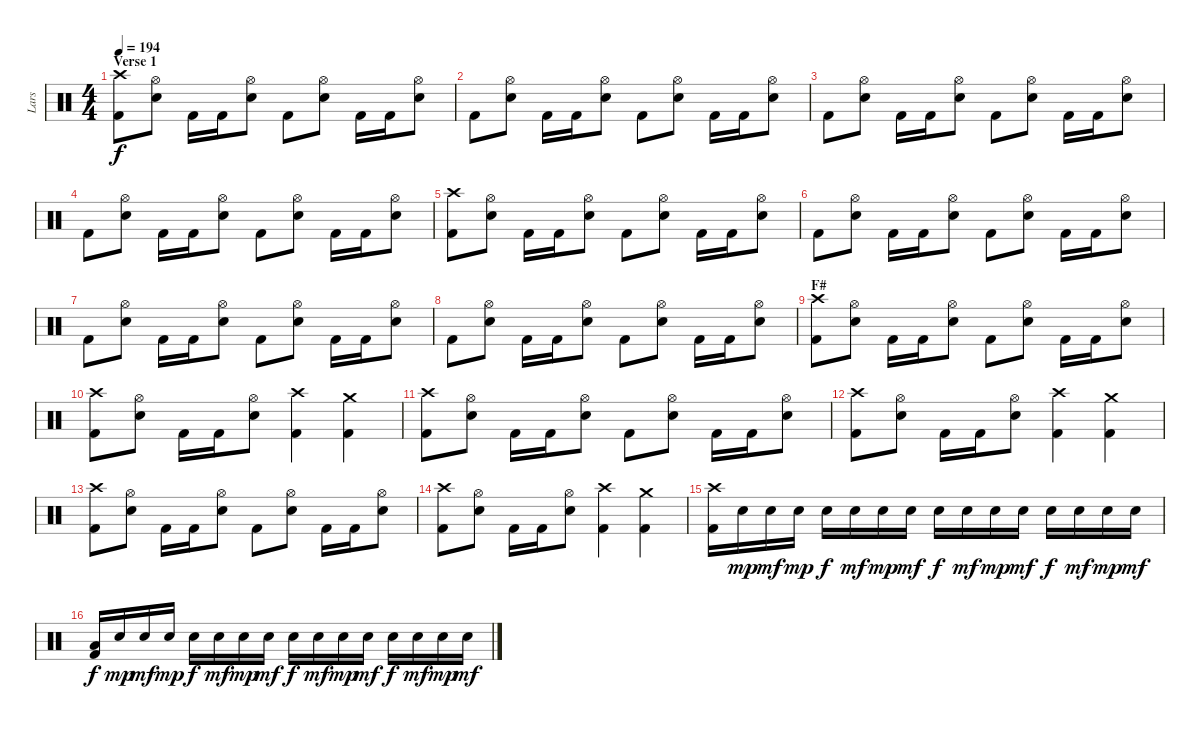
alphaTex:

\track ("Lars" "Lars") {instrument percussion}
\staff {score}
\articulation defaults
\ts (4 4)
\section ("" "Verse 1")
\tempo 194
\clef neutral
\ks c
("Kick (hit) 2" "Crash high (hit)").8{dy f} ("Electric Snare (hit)" "Hi-Hat (open)").8 "Kick (hit) 2".16 "Kick (hit) 2".16 ("Electric Snare (hit)" "Hi-Hat (open)").8 "Kick (hit) 2".8 ("Electric Snare (hit)" "Hi-Hat (open)").8 "Kick (hit) 2".16 "Kick (hit) 2".16 ("Electric Snare (hit)" "Hi-Hat (open)").8 |
"Kick (hit) 2".8 ("Electric Snare (hit)" "Hi-Hat (open)").8 "Kick (hit) 2".16 "Kick (hit) 2".16 ("Electric Snare (hit)" "Hi-Hat (open)").8 "Kick (hit) 2".8 ("Electric Snare (hit)" "Hi-Hat (open)").8 "Kick (hit) 2".16 "Kick (hit) 2".16 ("Electric Snare (hit)" "Hi-Hat (open)").8 |
"Kick (hit) 2".8 ("Electric Snare (hit)" "Hi-Hat (open)").8 "Kick (hit) 2".16 "Kick (hit) 2".16 ("Electric Snare (hit)" "Hi-Hat (open)").8 "Kick (hit) 2".8 ("Electric Snare (hit)" "Hi-Hat (open)").8 "Kick (hit) 2".16 "Kick (hit) 2".16 ("Electric Snare (hit)" "Hi-Hat (open)").8 |
"Kick (hit) 2".8 ("Electric Snare (hit)" "Hi-Hat (open)").8 "Kick (hit) 2".16 "Kick (hit) 2".16 ("Electric Snare (hit)" "Hi-Hat (open)").8 "Kick (hit) 2".8 ("Electric Snare (hit)" "Hi-Hat (open)").8 "Kick (hit) 2".16 "Kick (hit) 2".16 ("Electric Snare (hit)" "Hi-Hat (open)").8 |
("Kick (hit) 2" "Crash high (hit)").8 ("Electric Snare (hit)" "Hi-Hat (open)").8 "Kick (hit) 2".16 "Kick (hit) 2".16 ("Electric Snare (hit)" "Hi-Hat (open)").8 "Kick (hit) 2".8 ("Electric Snare (hit)" "Hi-Hat (open)").8 "Kick (hit) 2".16 "Kick (hit) 2".16 ("Electric Snare (hit)" "Hi-Hat (open)").8 |
"Kick (hit) 2".8 ("Electric Snare (hit)" "Hi-Hat (open)").8 "Kick (hit) 2".16 "Kick (hit) 2".16 ("Electric Snare (hit)" "Hi-Hat (open)").8 "Kick (hit) 2".8 ("Electric Snare (hit)" "Hi-Hat (open)").8 "Kick (hit) 2".16 "Kick (hit) 2".16 ("Electric Snare (hit)" "Hi-Hat (open)").8 |
"Kick (hit) 2".8 ("Electric Snare (hit)" "Hi-Hat (open)").8 "Kick (hit) 2".16 "Kick (hit) 2".16 ("Electric Snare (hit)" "Hi-Hat (open)").8 "Kick (hit) 2".8 ("Electric Snare (hit)" "Hi-Hat (open)").8 "Kick (hit) 2".16 "Kick (hit) 2".16 ("Electric Snare (hit)" "Hi-Hat (open)").8 |
"Kick (hit) 2".8 ("Electric Snare (hit)" "Hi-Hat (open)").8 "Kick (hit) 2".16 "Kick (hit) 2".16 ("Electric Snare (hit)" "Hi-Hat (open)").8 "Kick (hit) 2".8 ("Electric Snare (hit)" "Hi-Hat (open)").8 "Kick (hit) 2".16 "Kick (hit) 2".16 ("Electric Snare (hit)" "Hi-Hat (open)").8 |
\section ("" "F#")
("Kick (hit) 2" "Crash high (hit)").8 ("Electric Snare (hit)" "Hi-Hat (open)").8 "Kick (hit) 2".16 "Kick (hit) 2".16 ("Electric Snare (hit)" "Hi-Hat (open)").8 "Kick (hit) 2".8 ("Electric Snare (hit)" "Hi-Hat (open)").8 "Kick (hit) 2".16 "Kick (hit) 2".16 ("Electric Snare (hit)" "Hi-Hat (open)").8 |
("Kick (hit) 2" "Crash high (hit)").8 ("Electric Snare (hit)" "Hi-Hat (open)").8 "Kick (hit) 2".16 "Kick (hit) 2".16 ("Electric Snare (hit)" "Hi-Hat (open)").8 ("Kick (hit) 2" "Crash high (hit)").4 ("Kick (hit) 2" "Crash medium (hit)").4 |
("Kick (hit) 2" "Crash high (hit)").8 ("Electric Snare (hit)" "Hi-Hat (open)").8 "Kick (hit) 2".16 "Kick (hit) 2".16 ("Electric Snare (hit)" "Hi-Hat (open)").8 "Kick (hit) 2".8 ("Electric Snare (hit)" "Hi-Hat (open)").8 "Kick (hit) 2".16 "Kick (hit) 2".16 ("Electric Snare (hit)" "Hi-Hat (open)").8 |
("Kick (hit) 2" "Crash high (hit)").8 ("Electric Snare (hit)" "Hi-Hat (open)").8 "Kick (hit) 2".16 "Kick (hit) 2".16 ("Electric Snare (hit)" "Hi-Hat (open)").8 ("Kick (hit) 2" "Crash high (hit)").4 ("Kick (hit) 2" "Crash medium (hit)").4 |
("Kick (hit) 2" "Crash high (hit)").8 ("Electric Snare (hit)" "Hi-Hat (open)").8 "Kick (hit) 2".16 "Kick (hit) 2".16 ("Electric Snare (hit)" "Hi-Hat (open)").8 "Kick (hit) 2".8 ("Electric Snare (hit)" "Hi-Hat (open)").8 "Kick (hit) 2".16 "Kick (hit) 2".16 ("Electric Snare (hit)" "Hi-Hat (open)").8 |
("Kick (hit) 2" "Crash high (hit)").8 ("Electric Snare (hit)" "Hi-Hat (open)").8 "Kick (hit) 2".16 "Kick (hit) 2".16 ("Electric Snare (hit)" "Hi-Hat (open)").8 ("Kick (hit) 2" "Crash high (hit)").4 ("Kick (hit) 2" "Crash medium (hit)").4 |
("Kick (hit) 2" "Crash high (hit)").16 "Electric Snare (hit)".16{dy mp} "Electric Snare (hit)".16{dy mf} "Electric Snare (hit)".16{dy mp} "Electric Snare (hit)".16{dy f} "Electric Snare (hit)".16{dy mf} "Electric Snare (hit)".16{dy mp} "Electric Snare (hit)".16{dy mf} "Electric Snare (hit)".16{dy f} "Electric Snare (hit)".16{dy mf} "Electric Snare (hit)".16{dy mp} "Electric Snare (hit)".16{dy mf} "Electric Snare (hit)".16{dy f} "Electric Snare (hit)".16{dy mf} "Electric Snare (hit)".16{dy mp} "Electric Snare (hit)".16{dy mf} |
("Low Tom (hit)" "Kick (hit) 2").16{dy f} "Electric Snare (hit)".16{dy mp} "Electric Snare (hit)".16{dy mf} "Electric Snare (hit)".16{dy mp} "Electric Snare (hit)".16{dy f} "Electric Snare (hit)".16{dy mf} "Electric Snare (hit)".16{dy mp} "Electric Snare (hit)".16{dy mf} "Electric Snare (hit)".16{dy f} "Electric Snare (hit)".16{dy mf} "Electric Snare (hit)".16{dy mp} "Electric Snare (hit)".16{dy mf} "Electric Snare (hit)".16{dy f} "Electric Snare (hit)".16{dy mf} "Electric Snare (hit)".16{dy mp} "Electric Snare (hit)".16{dy mf}
